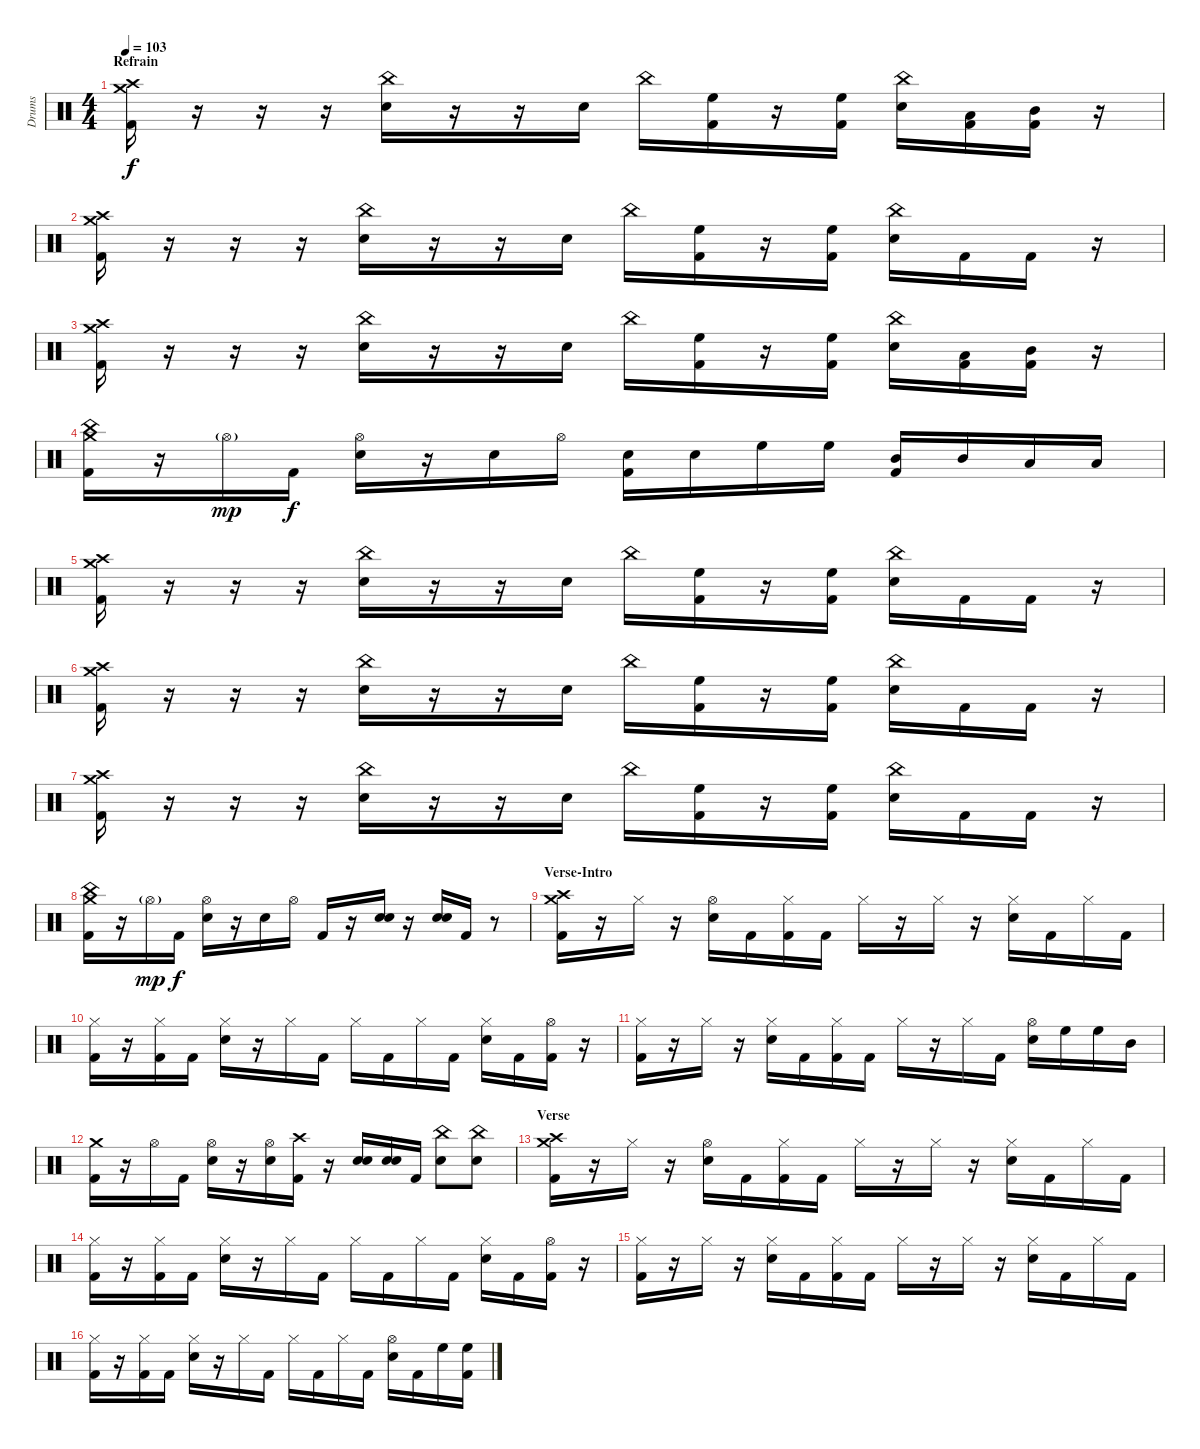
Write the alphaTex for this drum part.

\track ("Drums" "Drums") {instrument percussion}
\staff {score}
\articulation defaults
\ts (4 4)
\section ("" "Refrain")
\tempo 103
\clef neutral
\ks c
("Crash medium (hit)" "Crash high (hit)" "Kick (hit) 2").16{dy f} r.16 r.16 r.16 ("China (hit)" "Snare (hit) 2").16 r.16 r.16 "Snare (hit) 2".16 "China (hit)".16 ("High Floor Tom (hit)" "Kick (hit) 2").16 r.16 ("High Floor Tom (hit)" "Kick (hit) 2").16 ("China (hit)" "Snare (hit) 2").16 ("Low Tom (hit)" "Kick (hit) 2").16 ("Mid Tom (hit)" "Kick (hit) 2").16 r.16 |
("Crash medium (hit)" "Crash high (hit)" "Kick (hit) 2").16 r.16 r.16 r.16 ("China (hit)" "Snare (hit) 2").16 r.16 r.16 "Snare (hit) 2".16 "China (hit)".16 ("High Floor Tom (hit)" "Kick (hit) 2").16 r.16 ("High Floor Tom (hit)" "Kick (hit) 2").16 ("China (hit)" "Snare (hit) 2").16 "Kick (hit) 2".16 "Kick (hit) 2".16 r.16 |
("Crash medium (hit)" "Crash high (hit)" "Kick (hit) 2").16 r.16 r.16 r.16 ("China (hit)" "Snare (hit) 2").16 r.16 r.16 "Snare (hit) 2".16 "China (hit)".16 ("High Floor Tom (hit)" "Kick (hit) 2").16 r.16 ("High Floor Tom (hit)" "Kick (hit) 2").16 ("China (hit)" "Snare (hit) 2").16 ("Low Tom (hit)" "Kick (hit) 2").16 ("Mid Tom (hit)" "Kick (hit) 2").16 r.16 |
("Crash medium (hit)" "China (hit)" "Kick (hit) 2").16 r.16 "Hi-Hat (open)"{g}.16{dy mp} "Kick (hit) 2".16{dy f} ("Hi-Hat (open)" "Snare (hit) 2").16 r.16 "Snare (hit) 2".16 "Hi-Hat (open)".16 ("Snare (hit) 2" "Kick (hit) 2").16 "Snare (hit) 2".16 "High Floor Tom (hit)".16 "High Floor Tom (hit)".16 ("Mid Tom (hit)" "Kick (hit) 2").16 "Mid Tom (hit)".16 "Low Tom (hit)".16 "Low Tom (hit)".16 |
("Crash medium (hit)" "Crash high (hit)" "Kick (hit) 2").16 r.16 r.16 r.16 ("China (hit)" "Snare (hit) 2").16 r.16 r.16 "Snare (hit) 2".16 "China (hit)".16 ("High Floor Tom (hit)" "Kick (hit) 2").16 r.16 ("High Floor Tom (hit)" "Kick (hit) 2").16 ("China (hit)" "Snare (hit) 2").16 "Kick (hit) 2".16 "Kick (hit) 2".16 r.16 |
("Crash medium (hit)" "Crash high (hit)" "Kick (hit) 2").16 r.16 r.16 r.16 ("China (hit)" "Snare (hit) 2").16 r.16 r.16 "Snare (hit) 2".16 "China (hit)".16 ("High Floor Tom (hit)" "Kick (hit) 2").16 r.16 ("High Floor Tom (hit)" "Kick (hit) 2").16 ("China (hit)" "Snare (hit) 2").16 "Kick (hit) 2".16 "Kick (hit) 2".16 r.16 |
("Crash medium (hit)" "Crash high (hit)" "Kick (hit) 2").16 r.16 r.16 r.16 ("China (hit)" "Snare (hit) 2").16 r.16 r.16 "Snare (hit) 2".16 "China (hit)".16 ("High Floor Tom (hit)" "Kick (hit) 2").16 r.16 ("High Floor Tom (hit)" "Kick (hit) 2").16 ("China (hit)" "Snare (hit) 2").16 "Kick (hit) 2".16 "Kick (hit) 2".16 r.16 |
("Crash medium (hit)" "China (hit)" "Kick (hit) 2").16 r.16 "Hi-Hat (open)"{g}.16{dy mp} "Kick (hit) 2".16{dy f} ("Hi-Hat (open)" "Snare (hit) 2").16 r.16 "Snare (hit) 2".16 "Hi-Hat (open)".16 "Kick (hit) 2".16 r.16 ("Snare (hit) 2" "Snare (hit) 2").16 r.16 ("Snare (hit) 2" "Snare (hit) 2").16 "Kick (hit) 2".16 r.8 |
\section ("" "Verse-Intro")
("Crash high (hit)" "Crash medium (hit)" "Kick (hit) 2").16 r.16 "Hi-Hat (closed)".16 r.16 ("Hi-Hat (open)" "Snare (hit) 2").16 "Kick (hit) 2".16 ("Hi-Hat (closed)" "Kick (hit) 2").16 "Kick (hit) 2".16 "Hi-Hat (closed)".16 r.16 "Hi-Hat (closed)".16 r.16 ("Hi-Hat (closed)" "Snare (hit) 2").16 "Kick (hit) 2".16 "Hi-Hat (closed)".16 "Kick (hit) 2".16 |
("Hi-Hat (closed)" "Kick (hit) 2").16 r.16 ("Hi-Hat (closed)" "Kick (hit) 2").16 "Kick (hit) 2".16 ("Hi-Hat (closed)" "Snare (hit) 2").16 r.16 "Hi-Hat (closed)".16 "Kick (hit) 2".16 "Hi-Hat (closed)".16 "Kick (hit) 2".16 "Hi-Hat (closed)".16 "Kick (hit) 2".16 ("Hi-Hat (closed)" "Snare (hit) 2").16 "Kick (hit) 2".16 ("Hi-Hat (open)" "Kick (hit) 2").16 r.16 |
("Hi-Hat (closed)" "Kick (hit) 2").16 r.16 "Hi-Hat (closed)".16 r.16 ("Hi-Hat (closed)" "Snare (hit) 2").16 "Kick (hit) 2".16 ("Hi-Hat (closed)" "Kick (hit) 2").16 "Kick (hit) 2".16 "Hi-Hat (closed)".16 r.16 "Hi-Hat (closed)".16 "Kick (hit) 2".16 ("Hi-Hat (open)" "Snare (hit) 2").16 "High Floor Tom (hit)".16 "High Floor Tom (hit)".16 "Mid Tom (hit)".16 |
("Crash medium (hit)" "Kick (hit) 2").16 r.16 "Hi-Hat (open)".16 "Kick (hit) 2".16 ("Hi-Hat (open)" "Snare (hit) 2").16 r.16 ("Hi-Hat (open)" "Snare (hit) 2").16 ("Crash high (hit)" "Kick (hit) 2").16 r.16 ("Snare (hit) 2" "Snare (hit) 2").16 ("Snare (hit) 2" "Snare (hit) 2").16 "Kick (hit) 2".16 ("China (hit)" "Snare (hit) 2").8 ("China (hit)" "Snare (hit) 2").8 |
\section ("" "Verse")
("Crash high (hit)" "Crash medium (hit)" "Kick (hit) 2").16 r.16 "Hi-Hat (closed)".16 r.16 ("Hi-Hat (open)" "Snare (hit) 2").16 "Kick (hit) 2".16 ("Hi-Hat (closed)" "Kick (hit) 2").16 "Kick (hit) 2".16 "Hi-Hat (closed)".16 r.16 "Hi-Hat (closed)".16 r.16 ("Hi-Hat (closed)" "Snare (hit) 2").16 "Kick (hit) 2".16 "Hi-Hat (closed)".16 "Kick (hit) 2".16 |
("Hi-Hat (closed)" "Kick (hit) 2").16 r.16 ("Hi-Hat (closed)" "Kick (hit) 2").16 "Kick (hit) 2".16 ("Hi-Hat (closed)" "Snare (hit) 2").16 r.16 "Hi-Hat (closed)".16 "Kick (hit) 2".16 "Hi-Hat (closed)".16 "Kick (hit) 2".16 "Hi-Hat (closed)".16 "Kick (hit) 2".16 ("Hi-Hat (closed)" "Snare (hit) 2").16 "Kick (hit) 2".16 ("Hi-Hat (open)" "Kick (hit) 2").16 r.16 |
("Hi-Hat (closed)" "Kick (hit) 2").16 r.16 "Hi-Hat (closed)".16 r.16 ("Hi-Hat (closed)" "Snare (hit) 2").16 "Kick (hit) 2".16 ("Hi-Hat (closed)" "Kick (hit) 2").16 "Kick (hit) 2".16 "Hi-Hat (closed)".16 r.16 "Hi-Hat (closed)".16 r.16 ("Hi-Hat (closed)" "Snare (hit) 2").16 "Kick (hit) 2".16 "Hi-Hat (closed)".16 "Kick (hit) 2".16 |
("Hi-Hat (closed)" "Kick (hit) 2").16 r.16 ("Hi-Hat (closed)" "Kick (hit) 2").16 "Kick (hit) 2".16 ("Hi-Hat (closed)" "Snare (hit) 2").16 r.16 "Hi-Hat (closed)".16 "Kick (hit) 2".16 "Hi-Hat (closed)".16 "Kick (hit) 2".16 "Hi-Hat (closed)".16 "Kick (hit) 2".16 ("Hi-Hat (open)" "Snare (hit) 2").16 "Kick (hit) 2".16 "High Floor Tom (hit)".16 ("High Floor Tom (hit)" "Kick (hit) 2").16
